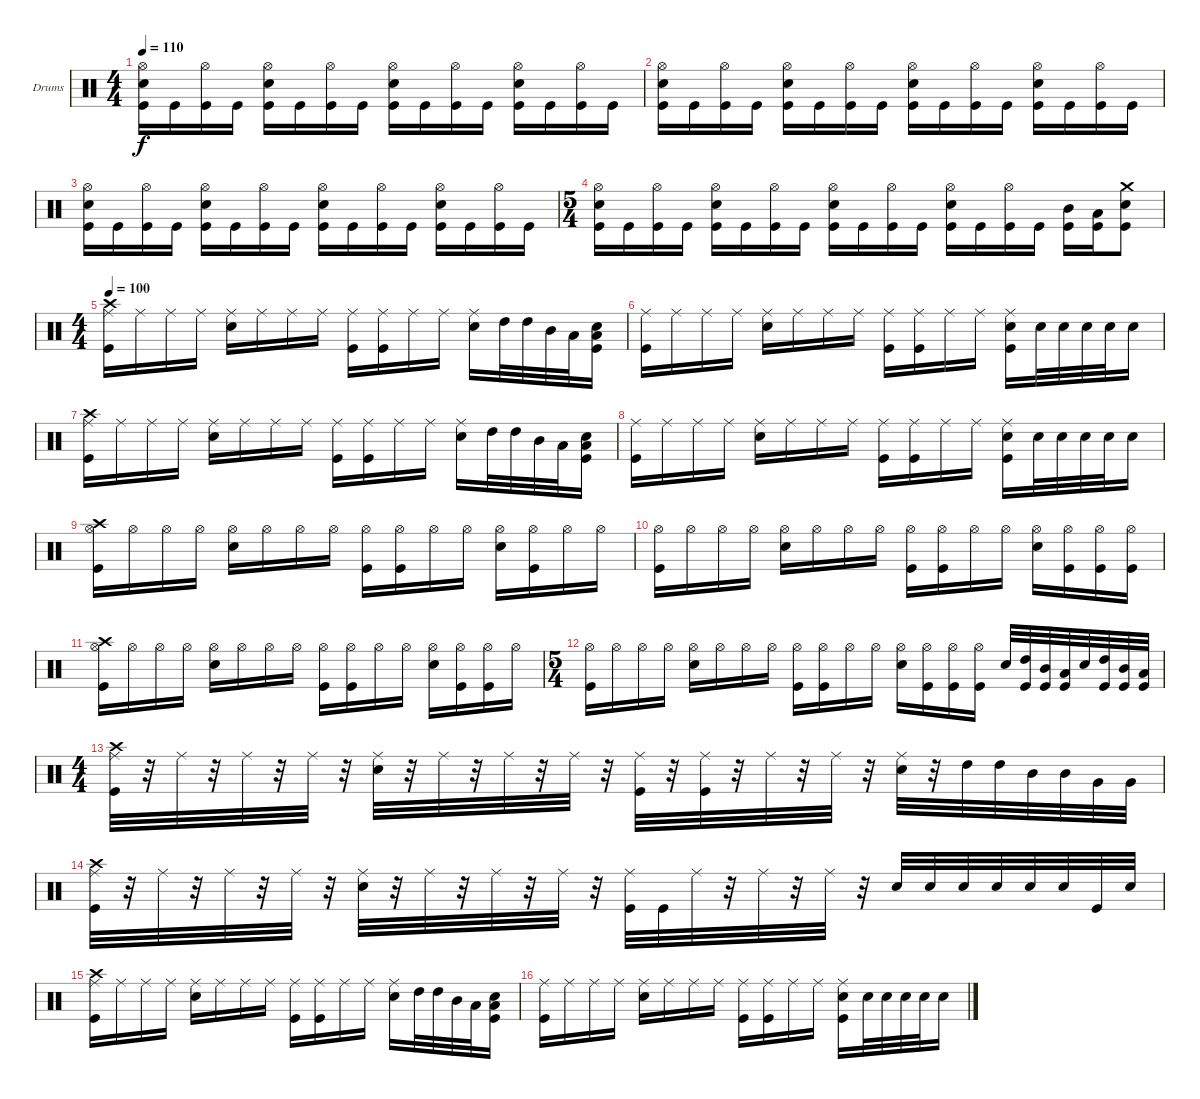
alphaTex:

\bracketExtendMode groupsimilarinstruments
\firstSystemTrackNameOrientation horizontal
\otherSystemsTrackNameOrientation horizontal
\track ("Drumkit" "Drums") {instrument percussion}
\staff {score}
\articulation defaults
\ts (4 4)
\tempo 110
\clef neutral
\ks c
("Hi-Hat (open)" "Snare (hit) 2" "Kick (hit)").16{dy f} "Kick (hit)".16 ("Hi-Hat (open)" "Kick (hit)").16 "Kick (hit)".16 ("Hi-Hat (open)" "Snare (hit) 2" "Kick (hit)").16 "Kick (hit)".16 ("Hi-Hat (open)" "Kick (hit)").16 "Kick (hit)".16 ("Hi-Hat (open)" "Snare (hit) 2" "Kick (hit)").16 "Kick (hit)".16 ("Hi-Hat (open)" "Kick (hit)").16 "Kick (hit)".16 ("Hi-Hat (open)" "Snare (hit) 2" "Kick (hit)").16 "Kick (hit)".16 ("Hi-Hat (open)" "Kick (hit)").16 "Kick (hit)".16 |
("Hi-Hat (open)" "Snare (hit) 2" "Kick (hit)").16 "Kick (hit)".16 ("Hi-Hat (open)" "Kick (hit)").16 "Kick (hit)".16 ("Hi-Hat (open)" "Snare (hit) 2" "Kick (hit)").16 "Kick (hit)".16 ("Hi-Hat (open)" "Kick (hit)").16 "Kick (hit)".16 ("Hi-Hat (open)" "Snare (hit) 2" "Kick (hit)").16 "Kick (hit)".16 ("Hi-Hat (open)" "Kick (hit)").16 "Kick (hit)".16 ("Hi-Hat (open)" "Snare (hit) 2" "Kick (hit)").16 "Kick (hit)".16 ("Hi-Hat (open)" "Kick (hit)").16 "Kick (hit)".16 |
("Hi-Hat (open)" "Snare (hit) 2" "Kick (hit)").16 "Kick (hit)".16 ("Hi-Hat (open)" "Kick (hit)").16 "Kick (hit)".16 ("Hi-Hat (open)" "Snare (hit) 2" "Kick (hit)").16 "Kick (hit)".16 ("Hi-Hat (open)" "Kick (hit)").16 "Kick (hit)".16 ("Hi-Hat (open)" "Snare (hit) 2" "Kick (hit)").16 "Kick (hit)".16 ("Hi-Hat (open)" "Kick (hit)").16 "Kick (hit)".16 ("Hi-Hat (open)" "Snare (hit) 2" "Kick (hit)").16 "Kick (hit)".16 ("Hi-Hat (open)" "Kick (hit)").16 "Kick (hit)".16 |
\ts (5 4)
("Hi-Hat (open)" "Snare (hit) 2" "Kick (hit)").16 "Kick (hit)".16 ("Hi-Hat (open)" "Kick (hit)").16 "Kick (hit)".16 ("Hi-Hat (open)" "Snare (hit) 2" "Kick (hit)").16 "Kick (hit)".16 ("Hi-Hat (open)" "Kick (hit)").16 "Kick (hit)".16 ("Hi-Hat (open)" "Snare (hit) 2" "Kick (hit)").16 "Kick (hit)".16 ("Hi-Hat (open)" "Kick (hit)").16 "Kick (hit)".16 ("Hi-Hat (open)" "Snare (hit) 2" "Kick (hit)").16 "Kick (hit)".16 ("Hi-Hat (open)" "Kick (hit)").16 "Kick (hit)".16 ("Mid Tom (hit)" "Kick (hit)").16 ("Low Tom (hit)" "Kick (hit)").16 ("Crash medium (hit)" "Snare (hit) 2" "Kick (hit)").8 |
\ts (4 4)
\tempo 100
("Crash high (hit)" "Ride (middle)" "Kick (hit)").16 "Ride (middle)".16 "Ride (middle)".16 "Ride (middle)".16 ("Ride (middle)" "Snare (hit) 2").16 "Ride (middle)".16 "Ride (middle)".16 "Ride (middle)".16 ("Ride (middle)" "Kick (hit)").16 ("Ride (middle)" "Kick (hit)").16 "Ride (middle)".16 "Ride (middle)".16 ("Ride (middle)" "Snare (hit) 2").16 "High Tom (hit)".32 "High Tom (hit)".32 "Mid Tom (hit)".32 "Low Tom (hit)".32 ("Low Tom (hit)" "Snare (hit) 2" "Kick (hit)").16 |
("Ride (middle)" "Kick (hit)").16 "Ride (middle)".16 "Ride (middle)".16 "Ride (middle)".16 ("Ride (middle)" "Snare (hit) 2").16 "Ride (middle)".16 "Ride (middle)".16 "Ride (middle)".16 ("Ride (middle)" "Kick (hit)").16 ("Ride (middle)" "Kick (hit)").16 "Ride (middle)".16 "Ride (middle)".16 ("Ride (middle)" "Snare (hit) 2" "Kick (hit)").16 "Snare (hit) 2".32 "Snare (hit) 2".32 "Snare (hit) 2".32 "Snare (hit) 2".32 "Snare (hit) 2".16 |
("Crash high (hit)" "Ride (middle)" "Kick (hit)").16 "Ride (middle)".16 "Ride (middle)".16 "Ride (middle)".16 ("Ride (middle)" "Snare (hit) 2").16 "Ride (middle)".16 "Ride (middle)".16 "Ride (middle)".16 ("Ride (middle)" "Kick (hit)").16 ("Ride (middle)" "Kick (hit)").16 "Ride (middle)".16 "Ride (middle)".16 ("Ride (middle)" "Snare (hit) 2").16 "High Tom (hit)".32 "High Tom (hit)".32 "Mid Tom (hit)".32 "Low Tom (hit)".32 ("Low Tom (hit)" "Snare (hit) 2" "Kick (hit)").16 |
("Ride (middle)" "Kick (hit)").16 "Ride (middle)".16 "Ride (middle)".16 "Ride (middle)".16 ("Ride (middle)" "Snare (hit) 2").16 "Ride (middle)".16 "Ride (middle)".16 "Ride (middle)".16 ("Ride (middle)" "Kick (hit)").16 ("Ride (middle)" "Kick (hit)").16 "Ride (middle)".16 "Ride (middle)".16 ("Ride (middle)" "Snare (hit) 2" "Kick (hit)").16 "Snare (hit) 2".32 "Snare (hit) 2".32 "Snare (hit) 2".32 "Snare (hit) 2".32 "Snare (hit) 2".16 |
("Crash high (hit)" "Hi-Hat (open)" "Kick (hit)").16 "Hi-Hat (open)".16 "Hi-Hat (open)".16 "Hi-Hat (open)".16 ("Hi-Hat (open)" "Snare (hit) 2").16 "Hi-Hat (open)".16 "Hi-Hat (open)".16 "Hi-Hat (open)".16 ("Hi-Hat (open)" "Kick (hit)").16 ("Hi-Hat (open)" "Kick (hit)").16 "Hi-Hat (open)".16 "Hi-Hat (open)".16 ("Hi-Hat (open)" "Snare (hit) 2").16 ("Hi-Hat (open)" "Kick (hit)").16 "Hi-Hat (open)".16 "Hi-Hat (open)".16 |
("Hi-Hat (open)" "Kick (hit)").16 "Hi-Hat (open)".16 "Hi-Hat (open)".16 "Hi-Hat (open)".16 ("Hi-Hat (open)" "Snare (hit) 2").16 "Hi-Hat (open)".16 "Hi-Hat (open)".16 "Hi-Hat (open)".16 ("Hi-Hat (open)" "Kick (hit)").16 ("Hi-Hat (open)" "Kick (hit)").16 "Hi-Hat (open)".16 "Hi-Hat (open)".16 ("Hi-Hat (open)" "Snare (hit) 2").16 ("Hi-Hat (open)" "Kick (hit)").16 ("Hi-Hat (open)" "Kick (hit)").16 ("Hi-Hat (open)" "Kick (hit)").16 |
("Crash high (hit)" "Hi-Hat (open)" "Kick (hit)").16 "Hi-Hat (open)".16 "Hi-Hat (open)".16 "Hi-Hat (open)".16 ("Hi-Hat (open)" "Snare (hit) 2").16 "Hi-Hat (open)".16 "Hi-Hat (open)".16 "Hi-Hat (open)".16 ("Hi-Hat (open)" "Kick (hit)").16 ("Hi-Hat (open)" "Kick (hit)").16 "Hi-Hat (open)".16 "Hi-Hat (open)".16 ("Hi-Hat (open)" "Snare (hit) 2").16 ("Hi-Hat (open)" "Kick (hit)").16 ("Hi-Hat (open)" "Kick (hit)").16 "Hi-Hat (open)".16 |
\ts (5 4)
("Hi-Hat (open)" "Kick (hit)").16 "Hi-Hat (open)".16 "Hi-Hat (open)".16 "Hi-Hat (open)".16 ("Hi-Hat (open)" "Snare (hit) 2").16 "Hi-Hat (open)".16 "Hi-Hat (open)".16 "Hi-Hat (open)".16 ("Hi-Hat (open)" "Kick (hit)").16 ("Hi-Hat (open)" "Kick (hit)").16 "Hi-Hat (open)".16 "Hi-Hat (open)".16 ("Hi-Hat (open)" "Snare (hit) 2").16 ("Hi-Hat (open)" "Kick (hit)").16 ("Hi-Hat (open)" "Kick (hit)").16 ("Hi-Hat (open)" "Kick (hit)").16 "Snare (hit) 2".32 ("High Tom (hit)" "Kick (hit)").32 ("Mid Tom (hit)" "Kick (hit)").32 ("Low Tom (hit)" "Kick (hit)").32 "Snare (hit) 2".32 ("High Tom (hit)" "Kick (hit)").32 ("Mid Tom (hit)" "Kick (hit)").32 ("Low Tom (hit)" "Kick (hit)").32 |
\ts (4 4)
("Crash high (hit)" "Ride (middle)" "Kick (hit)").32 r.32 "Ride (middle)".32 r.32 "Ride (middle)".32 r.32 "Ride (middle)".32 r.32 ("Ride (middle)" "Snare (hit) 2").32 r.32 "Ride (middle)".32 r.32 "Ride (middle)".32 r.32 "Ride (middle)".32 r.32 ("Ride (middle)" "Kick (hit)").32 r.32 ("Ride (middle)" "Kick (hit)").32 r.32 "Ride (middle)".32 r.32 "Ride (middle)".32 r.32 ("Ride (middle)" "Snare (hit) 2").32 r.32 "High Tom (hit)".32 "High Tom (hit)".32 "Mid Tom (hit)".32 "Mid Tom (hit)".32 "Very Low Tom (hit)".32 "Very Low Tom (hit)".32 |
("Crash high (hit)" "Ride (middle)" "Kick (hit)").32 r.32 "Ride (middle)".32 r.32 "Ride (middle)".32 r.32 "Ride (middle)".32 r.32 ("Ride (middle)" "Snare (hit) 2").32 r.32 "Ride (middle)".32 r.32 "Ride (middle)".32 r.32 "Ride (middle)".32 r.32 ("Ride (middle)" "Kick (hit)").32 "Kick (hit)".32 "Ride (middle)".32 r.32 "Ride (middle)".32 r.32 "Ride (middle)".32 r.32 "Snare (hit) 2".32 "Snare (hit) 2".32 "Snare (hit) 2".32 "Snare (hit) 2".32 "Snare (hit) 2".32 "Snare (hit) 2".32 "Kick (hit)".32 "Snare (hit) 2".32 |
("Crash high (hit)" "Ride (middle)" "Kick (hit)").16 "Ride (middle)".16 "Ride (middle)".16 "Ride (middle)".16 ("Ride (middle)" "Snare (hit) 2").16 "Ride (middle)".16 "Ride (middle)".16 "Ride (middle)".16 ("Ride (middle)" "Kick (hit)").16 ("Ride (middle)" "Kick (hit)").16 "Ride (middle)".16 "Ride (middle)".16 ("Ride (middle)" "Snare (hit) 2").16 "High Tom (hit)".32 "High Tom (hit)".32 "Mid Tom (hit)".32 "Low Tom (hit)".32 ("Low Tom (hit)" "Snare (hit) 2" "Kick (hit)").16 |
("Ride (middle)" "Kick (hit)").16 "Ride (middle)".16 "Ride (middle)".16 "Ride (middle)".16 ("Ride (middle)" "Snare (hit) 2").16 "Ride (middle)".16 "Ride (middle)".16 "Ride (middle)".16 ("Ride (middle)" "Kick (hit)").16 ("Ride (middle)" "Kick (hit)").16 "Ride (middle)".16 "Ride (middle)".16 ("Ride (middle)" "Snare (hit) 2" "Kick (hit)").16 "Snare (hit) 2".32 "Snare (hit) 2".32 "Snare (hit) 2".32 "Snare (hit) 2".32 "Snare (hit) 2".16
